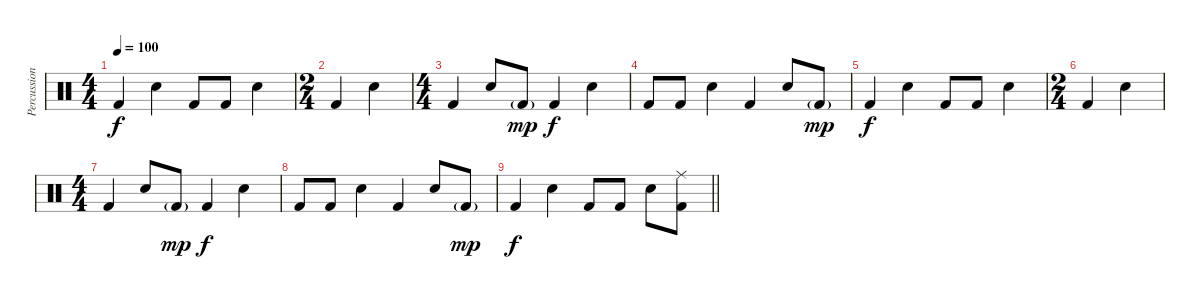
\track ("Percussion" "Percussion") {instrument percussion}
\staff {score}
\articulation defaults
\ts (4 4)
\tempo 100
\clef neutral
\ks c "Kick (hit) 2".4{dy f} "Snare (hit) 2".4 "Kick (hit) 2".8 "Kick (hit) 2".8 "Snare (hit) 2".4
|
\ts (2 4)
"Kick (hit) 2".4 "Snare (hit) 2".4 |
\ts (4 4)
"Kick (hit) 2".4 "Snare (hit) 2".8 "Kick (hit) 2"{g}.8{dy mp} "Kick (hit) 2".4{dy f} "Snare (hit) 2".4 |
"Kick (hit) 2".8 "Kick (hit) 2".8 "Snare (hit) 2".4 "Kick (hit) 2".4 "Snare (hit) 2".8 "Kick (hit) 2"{g}.8{dy mp} |
"Kick (hit) 2".4{dy f} "Snare (hit) 2".4 "Kick (hit) 2".8 "Kick (hit) 2".8 "Snare (hit) 2".4 |
\ts (2 4)
"Kick (hit) 2".4 "Snare (hit) 2".4 |
\ts (4 4)
"Kick (hit) 2".4 "Snare (hit) 2".8 "Kick (hit) 2"{g}.8{dy mp} "Kick (hit) 2".4{dy f} "Snare (hit) 2".4 |
"Kick (hit) 2".8 "Kick (hit) 2".8 "Snare (hit) 2".4 "Kick (hit) 2".4 "Snare (hit) 2".8 "Kick (hit) 2"{g}.8{dy mp} |
\barLineRight lightlight "Kick (hit) 2".4{dy f} "Snare (hit) 2".4 "Kick (hit) 2".8 "Kick (hit) 2".8 "Snare (hit) 2".8
("Ride (middle)" "Kick (hit) 2").8
